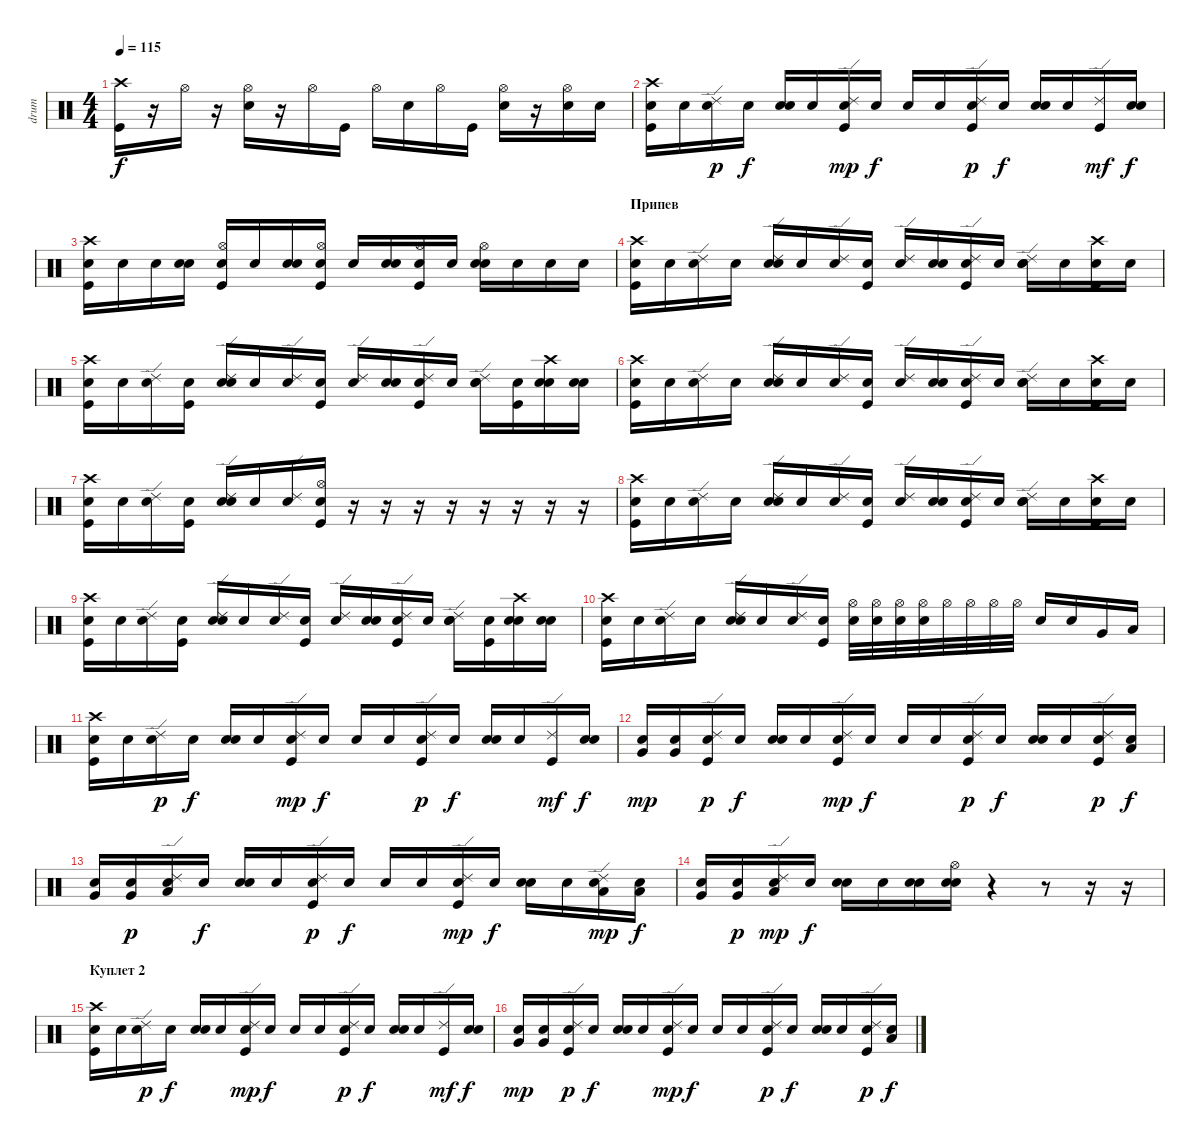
\track ("drum" "drum") {instrument percussion}
\staff {score}
\articulation defaults
\ts (4 4)
\tempo 115
\clef neutral
\ks c
("Crash high (hit)" "Kick (hit)").16{dy f} r.16 "Hi-Hat (open)".16 r.16 ("Hi-Hat (open)" "Snare (hit) 2").16 r.16 "Hi-Hat (open)".16 "Kick (hit)".16 "Hi-Hat (open)".16 "Snare (hit) 2".16 "Hi-Hat (open)".16 "Kick (hit)".16 ("Hi-Hat (open)" "Snare (hit) 2").16 r.16 ("Hi-Hat (open)" "Snare (hit) 2").16 "Snare (hit) 2".16 |
("Snare (hit)"{x} "Crash high (hit)" "Kick (hit)").16 "Snare (hit)"{x}.16 ("Snare (hit)"{x} "Ride (edge) 2").16{dy p} "Snare (hit)"{x}.16{dy f} ("Snare (hit)"{x} "Snare (hit) 2").16 "Snare (hit)"{x}.16 ("Snare (hit)"{x} "Ride (edge) 2" "Kick (hit)").16{dy mp} "Snare (hit)"{x}.16{dy f} "Snare (hit)"{x}.16 "Snare (hit)"{x}.16 ("Snare (hit)"{x} "Ride (edge) 2" "Kick (hit)").16{dy p} "Snare (hit)"{x}.16{dy f} ("Snare (hit)"{x} "Snare (hit) 2").16 "Snare (hit)"{x}.16 ("Ride (edge) 2" "Kick (hit)").16{dy mf} ("Snare (hit)"{x} "Snare (hit) 2").16{dy f} |
("Snare (hit)"{x} "Kick (hit)" "Crash high (hit)").16 "Snare (hit)"{x}.16 "Snare (hit)"{x}.16 ("Snare (hit)"{x} "Snare (hit) 2").16 ("Snare (hit)"{x} "Hi-Hat (open)" "Kick (hit)").16 "Snare (hit)"{x}.16 ("Snare (hit)"{x} "Snare (hit) 2").16 ("Snare (hit)"{x} "Hi-Hat (open)" "Kick (hit)").16 "Snare (hit)"{x}.16 ("Snare (hit)"{x} "Snare (hit) 2").16 ("Snare (hit)"{x} "Hi-Hat (open)" "Kick (hit)").16 "Snare (hit)"{x}.16 ("Snare (hit)"{x} "Hi-Hat (open)" "Snare (hit) 2").16 "Snare (hit)"{x}.16 "Snare (hit)"{x}.16 "Snare (hit)"{x}.16 |
\section ("" "Припев")
("Snare (hit)"{x} "Crash high (hit)" "Kick (hit)").16 "Snare (hit)"{x}.16 ("Snare (hit)"{x} "Ride (edge) 2").16 "Snare (hit)"{x}.16 ("Snare (hit)"{x} "Ride (edge) 2" "Electric Snare (hit)").16 "Snare (hit)"{x}.16 ("Snare (hit)"{x} "Ride (edge) 2").16 ("Snare (hit)"{x} "Kick (hit)").16 ("Snare (hit)"{x} "Ride (edge) 2").16 ("Snare (hit)"{x} "Electric Snare (hit)").16 ("Snare (hit)"{x} "Ride (edge) 2" "Kick (hit)").16 "Snare (hit)"{x}.16 ("Snare (hit)"{x} "Ride (edge) 2" "Electric Snare (hit)").16 "Snare (hit)"{x}.16 ("Snare (hit)"{x} "Crash high (hit)" "Kick (hit)").16 "Snare (hit)"{x}.16 |
("Snare (hit)"{x} "Crash high (hit)" "Kick (hit)").16 "Snare (hit)"{x}.16 ("Snare (hit)"{x} "Ride (edge) 2").16 ("Snare (hit)"{x} "Kick (hit)").16 ("Snare (hit)"{x} "Ride (edge) 2" "Electric Snare (hit)").16 "Snare (hit)"{x}.16 ("Snare (hit)"{x} "Ride (edge) 2").16 ("Snare (hit)"{x} "Kick (hit)").16 ("Snare (hit)"{x} "Ride (edge) 2").16 ("Snare (hit)"{x} "Electric Snare (hit)").16 ("Snare (hit)"{x} "Ride (edge) 2" "Kick (hit)").16 "Snare (hit)"{x}.16 ("Snare (hit)"{x} "Ride (edge) 2" "Electric Snare (hit)").16 ("Snare (hit)"{x} "Kick (hit)").16 ("Snare (hit)"{x} "Crash high (hit)" "Electric Snare (hit)").16 ("Snare (hit)"{x} "Electric Snare (hit)").16 |
("Snare (hit)"{x} "Crash high (hit)" "Kick (hit)").16 "Snare (hit)"{x}.16 ("Snare (hit)"{x} "Ride (edge) 2").16 "Snare (hit)"{x}.16 ("Snare (hit)"{x} "Ride (edge) 2" "Electric Snare (hit)").16 "Snare (hit)"{x}.16 ("Snare (hit)"{x} "Ride (edge) 2").16 ("Snare (hit)"{x} "Kick (hit)").16 ("Snare (hit)"{x} "Ride (edge) 2").16 ("Snare (hit)"{x} "Electric Snare (hit)").16 ("Snare (hit)"{x} "Ride (edge) 2" "Kick (hit)").16 "Snare (hit)"{x}.16 ("Snare (hit)"{x} "Ride (edge) 2" "Electric Snare (hit)").16 "Snare (hit)"{x}.16 ("Snare (hit)"{x} "Crash high (hit)" "Kick (hit)").16 "Snare (hit)"{x}.16 |
("Snare (hit)"{x} "Crash high (hit)" "Kick (hit)").16 "Snare (hit)"{x}.16 ("Snare (hit)"{x} "Ride (edge) 2").16 ("Snare (hit)"{x} "Kick (hit)").16 ("Snare (hit)"{x} "Ride (edge) 2" "Electric Snare (hit)").16 "Snare (hit)"{x}.16 ("Snare (hit)"{x} "Ride (edge) 2").16 ("Snare (hit)"{x} "Hi-Hat (open)" "Kick (hit)").16 r.16 r.16 r.16 r.16 r.16 r.16 r.16 r.16 |
("Snare (hit)"{x} "Crash high (hit)" "Kick (hit)").16 "Snare (hit)"{x}.16 ("Snare (hit)"{x} "Ride (edge) 2").16 "Snare (hit)"{x}.16 ("Snare (hit)"{x} "Ride (edge) 2" "Electric Snare (hit)").16 "Snare (hit)"{x}.16 ("Snare (hit)"{x} "Ride (edge) 2").16 ("Snare (hit)"{x} "Kick (hit)").16 ("Snare (hit)"{x} "Ride (edge) 2").16 ("Snare (hit)"{x} "Electric Snare (hit)").16 ("Snare (hit)"{x} "Ride (edge) 2" "Kick (hit)").16 "Snare (hit)"{x}.16 ("Snare (hit)"{x} "Ride (edge) 2" "Electric Snare (hit)").16 "Snare (hit)"{x}.16 ("Snare (hit)"{x} "Crash high (hit)" "Kick (hit)").16 "Snare (hit)"{x}.16 |
("Snare (hit)"{x} "Crash high (hit)" "Kick (hit)").16 "Snare (hit)"{x}.16 ("Snare (hit)"{x} "Ride (edge) 2").16 ("Snare (hit)"{x} "Kick (hit)").16 ("Snare (hit)"{x} "Ride (edge) 2" "Electric Snare (hit)").16 "Snare (hit)"{x}.16 ("Snare (hit)"{x} "Ride (edge) 2").16 ("Snare (hit)"{x} "Kick (hit)").16 ("Snare (hit)"{x} "Ride (edge) 2").16 ("Snare (hit)"{x} "Electric Snare (hit)").16 ("Snare (hit)"{x} "Ride (edge) 2" "Kick (hit)").16 "Snare (hit)"{x}.16 ("Snare (hit)"{x} "Ride (edge) 2" "Electric Snare (hit)").16 ("Snare (hit)"{x} "Kick (hit)").16 ("Snare (hit)"{x} "Crash high (hit)" "Electric Snare (hit)").16 ("Snare (hit)"{x} "Electric Snare (hit)").16 |
("Snare (hit)"{x} "Crash high (hit)" "Kick (hit)").16 "Snare (hit)"{x}.16 ("Snare (hit)"{x} "Ride (edge) 2").16 "Snare (hit)"{x}.16 ("Snare (hit)"{x} "Ride (edge) 2" "Electric Snare (hit)").16 "Snare (hit)"{x}.16 ("Snare (hit)"{x} "Ride (edge) 2").16 ("Snare (hit)"{x} "Kick (hit)").16 ("Snare (hit)"{x} "Hi-Hat (open)").32 ("Snare (hit)"{x} "Hi-Hat (open)").32 ("Snare (hit)"{x} "Hi-Hat (open)").32 ("Snare (hit)"{x} "Hi-Hat (open)").32 "Hi-Hat (open)".32 "Hi-Hat (open)".32 "Hi-Hat (open)".32 "Hi-Hat (open)".32 "Electric Snare (hit)".16 "Electric Snare (hit)".16 "Very Low Tom (hit)".16 "Low Floor Tom (hit)".16 |
("Snare (hit)"{x} "Crash high (hit)" "Kick (hit)").16 "Snare (hit)"{x}.16 ("Snare (hit)"{x} "Ride (edge) 2").16{dy p} "Snare (hit)"{x}.16{dy f} ("Snare (hit)"{x} "Snare (hit) 2").16 "Snare (hit)"{x}.16 ("Snare (hit)"{x} "Ride (edge) 2" "Kick (hit)").16{dy mp} "Snare (hit)"{x}.16{dy f} "Snare (hit)"{x}.16 "Snare (hit)"{x}.16 ("Snare (hit)"{x} "Ride (edge) 2" "Kick (hit)").16{dy p} "Snare (hit)"{x}.16{dy f} ("Snare (hit)"{x} "Snare (hit) 2").16 "Snare (hit)"{x}.16 ("Ride (edge) 2" "Kick (hit)").16{dy mf} ("Snare (hit)"{x} "Snare (hit) 2").16{dy f} |
("Snare (hit)"{x} "Very Low Tom (hit)").16{dy mp} ("Snare (hit)"{x} "Very Low Tom (hit)").16 ("Snare (hit)"{x} "Ride (edge) 2" "Kick (hit)").16{dy p} "Snare (hit)"{x}.16{dy f} ("Snare (hit)"{x} "Snare (hit) 2").16 "Snare (hit)"{x}.16 ("Snare (hit)"{x} "Ride (edge) 2" "Kick (hit)").16{dy mp} "Snare (hit)"{x}.16{dy f} "Snare (hit)"{x}.16 "Snare (hit)"{x}.16 ("Snare (hit)"{x} "Ride (edge) 2" "Kick (hit)").16{dy p} "Snare (hit)"{x}.16{dy f} ("Snare (hit)"{x} "Snare (hit) 2").16 "Snare (hit)"{x}.16 ("Snare (hit)"{x} "Ride (edge) 2" "Kick (hit)").16{dy p} ("Snare (hit)"{x} "Low Tom (hit)").16{dy f} |
("Snare (hit)"{x} "Very Low Tom (hit)").16 ("Snare (hit)"{x} "Very Low Tom (hit)").16{dy p} ("Snare (hit)"{x} "Ride (edge) 2" "Low Floor Tom (hit)").16 "Snare (hit)"{x}.16{dy f} ("Snare (hit)"{x} "Snare (hit) 2").16 "Snare (hit)"{x}.16 ("Snare (hit)"{x} "Ride (edge) 2" "Kick (hit)").16{dy p} "Snare (hit)"{x}.16{dy f} "Snare (hit)"{x}.16 "Snare (hit)"{x}.16 ("Snare (hit)"{x} "Ride (edge) 2" "Kick (hit)").16{dy mp} "Snare (hit)"{x}.16{dy f} ("Snare (hit)"{x} "Snare (hit) 2").16 "Snare (hit)"{x}.16 ("Snare (hit)"{x} "Ride (edge) 2" "Low Tom (hit)").16{dy mp} ("Snare (hit)"{x} "Low Tom (hit)").16{dy f} |
("Snare (hit)"{x} "Very Low Tom (hit)").16 ("Snare (hit)"{x} "Very Low Tom (hit)").16{dy p} ("Snare (hit)"{x} "Ride (edge) 2" "Low Floor Tom (hit)").16{dy mp} "Snare (hit)"{x}.16{dy f} ("Snare (hit)"{x} "Snare (hit) 2").16 "Snare (hit)"{x}.16 ("Snare (hit)"{x} "Snare (hit) 2").16 ("Snare (hit)"{x} "Hi-Hat (open)" "Snare (hit) 2").16 r.4 r.8 r.16 r.16 |
\section ("" "Куплет 2")
("Snare (hit)"{x} "Crash high (hit)" "Kick (hit)").16 "Snare (hit)"{x}.16 ("Snare (hit)"{x} "Ride (edge) 2").16{dy p} "Snare (hit)"{x}.16{dy f} ("Snare (hit)"{x} "Snare (hit) 2").16 "Snare (hit)"{x}.16 ("Snare (hit)"{x} "Ride (edge) 2" "Kick (hit)").16{dy mp} "Snare (hit)"{x}.16{dy f} "Snare (hit)"{x}.16 "Snare (hit)"{x}.16 ("Snare (hit)"{x} "Ride (edge) 2" "Kick (hit)").16{dy p} "Snare (hit)"{x}.16{dy f} ("Snare (hit)"{x} "Snare (hit) 2").16 "Snare (hit)"{x}.16 ("Ride (edge) 2" "Kick (hit)").16{dy mf} ("Snare (hit)"{x} "Snare (hit) 2").16{dy f} |
("Snare (hit)"{x} "Very Low Tom (hit)").16{dy mp} ("Snare (hit)"{x} "Very Low Tom (hit)").16 ("Snare (hit)"{x} "Ride (edge) 2" "Kick (hit)").16{dy p} "Snare (hit)"{x}.16{dy f} ("Snare (hit)"{x} "Snare (hit) 2").16 "Snare (hit)"{x}.16 ("Snare (hit)"{x} "Ride (edge) 2" "Kick (hit)").16{dy mp} "Snare (hit)"{x}.16{dy f} "Snare (hit)"{x}.16 "Snare (hit)"{x}.16 ("Snare (hit)"{x} "Ride (edge) 2" "Kick (hit)").16{dy p} "Snare (hit)"{x}.16{dy f} ("Snare (hit)"{x} "Snare (hit) 2").16 "Snare (hit)"{x}.16 ("Snare (hit)"{x} "Ride (edge) 2" "Kick (hit)").16{dy p} ("Snare (hit)"{x} "Low Tom (hit)").16{dy f}
